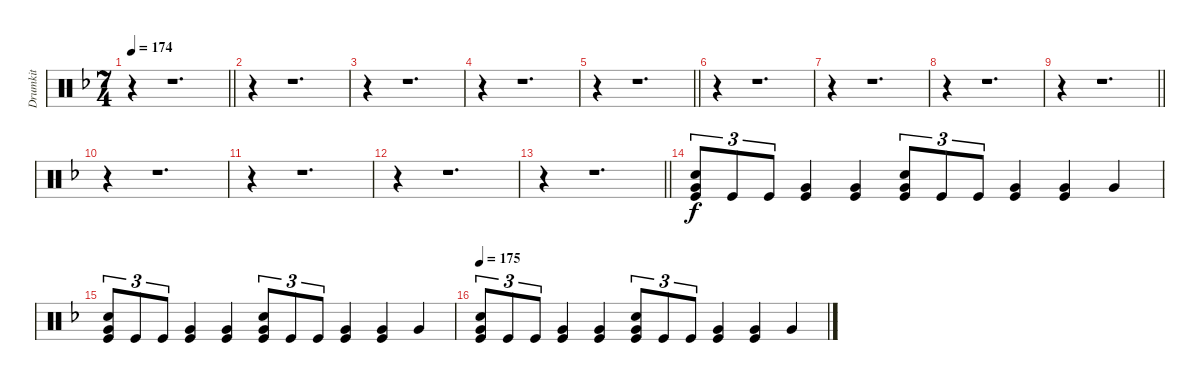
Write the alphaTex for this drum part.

\track ("Drumkit" "Drumkit") {instrument percussion}
\staff {score}
\articulation defaults
\ts (7 4)
\tempo 174
\clef neutral
\barLineRight lightlight
\ks dminor
r.4{dy f} r.1{d} |
r.4 r.1{d} |
r.4 r.1{d} |
r.4 r.1{d} |
\barLineRight lightlight
r.4 r.1{d} |
r.4 r.1{d} |
r.4 r.1{d} |
r.4 r.1{d} |
\barLineRight lightlight
r.4 r.1{d} |
r.4 r.1{d} |
r.4 r.1{d} |
r.4 r.1{d} |
\barLineRight lightlight
r.4 r.1{d} |
("Snare (hit) 2" "Very Low Tom (hit)" "Kick (hit)").8{tu (3 2)} "Kick (hit)".8{tu (3 2)} "Kick (hit)".8{tu (3 2)} ("Very Low Tom (hit)" "Kick (hit)").4 ("Very Low Tom (hit)" "Kick (hit)").4 ("Snare (hit) 2" "Very Low Tom (hit)" "Kick (hit)").8{tu (3 2)} "Kick (hit)".8{tu (3 2)} "Kick (hit)".8{tu (3 2)} ("Very Low Tom (hit)" "Kick (hit)").4 ("Very Low Tom (hit)" "Kick (hit)").4 "Very Low Tom (hit)".4 |
("Snare (hit) 2" "Very Low Tom (hit)" "Kick (hit)").8{tu (3 2)} "Kick (hit)".8{tu (3 2)} "Kick (hit)".8{tu (3 2)} ("Very Low Tom (hit)" "Kick (hit)").4 ("Very Low Tom (hit)" "Kick (hit)").4 ("Snare (hit) 2" "Very Low Tom (hit)" "Kick (hit)").8{tu (3 2)} "Kick (hit)".8{tu (3 2)} "Kick (hit)".8{tu (3 2)} ("Very Low Tom (hit)" "Kick (hit)").4 ("Very Low Tom (hit)" "Kick (hit)").4 "Very Low Tom (hit)".4 |
\tempo 175
("Snare (hit) 2" "Very Low Tom (hit)" "Kick (hit)").8{tu (3 2)} "Kick (hit)".8{tu (3 2)} "Kick (hit)".8{tu (3 2)} ("Very Low Tom (hit)" "Kick (hit)").4 ("Very Low Tom (hit)" "Kick (hit)").4 ("Snare (hit) 2" "Very Low Tom (hit)" "Kick (hit)").8{tu (3 2)} "Kick (hit)".8{tu (3 2)} "Kick (hit)".8{tu (3 2)} ("Very Low Tom (hit)" "Kick (hit)").4 ("Very Low Tom (hit)" "Kick (hit)").4 "Very Low Tom (hit)".4
